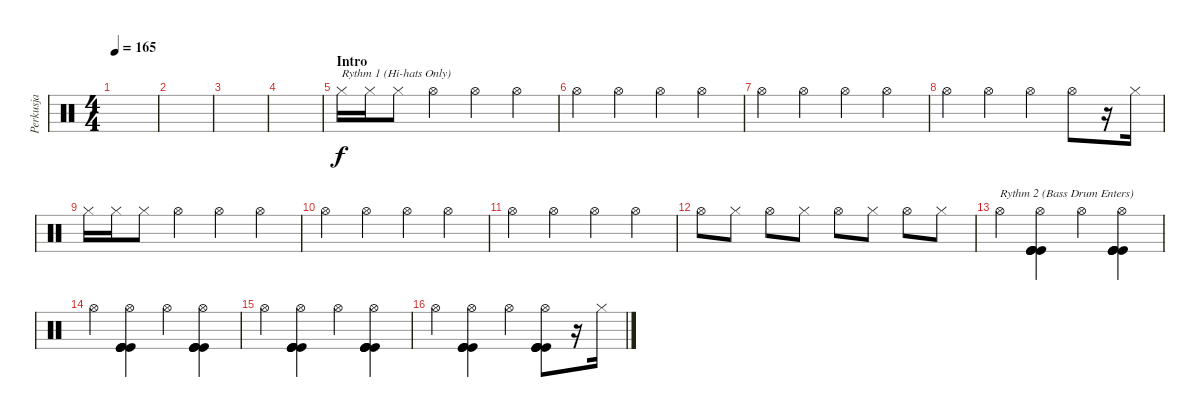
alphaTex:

\track ("Perkusja" "Perkusja") {instrument percussion}
\staff {score}
\articulation defaults
\ts (4 4)
\tempo 165
\clef neutral
\ks c
|
|
|
|
\section ("" "Intro")
"Hi-Hat (closed)".16{txt "Rythm 1 (Hi-hats Only)"} "Hi-Hat (closed)".16 "Hi-Hat (closed)".8 "Hi-Hat (open)".4 "Hi-Hat (open)".4 "Hi-Hat (open)".4 |
"Hi-Hat (open)".4 "Hi-Hat (open)".4 "Hi-Hat (open)".4 "Hi-Hat (open)".4 |
"Hi-Hat (open)".4 "Hi-Hat (open)".4 "Hi-Hat (open)".4 "Hi-Hat (open)".4 |
"Hi-Hat (open)".4 "Hi-Hat (open)".4 "Hi-Hat (open)".4 "Hi-Hat (open)".8 r.16 "Hi-Hat (closed)".16 |
"Hi-Hat (closed)".16 "Hi-Hat (closed)".16 "Hi-Hat (closed)".8 "Hi-Hat (open)".4 "Hi-Hat (open)".4 "Hi-Hat (open)".4 |
"Hi-Hat (open)".4 "Hi-Hat (open)".4 "Hi-Hat (open)".4 "Hi-Hat (open)".4 |
"Hi-Hat (open)".4 "Hi-Hat (open)".4 "Hi-Hat (open)".4 "Hi-Hat (open)".4 |
"Hi-Hat (open)".8 "Hi-Hat (closed)".8 "Hi-Hat (open)".8 "Hi-Hat (closed)".8 "Hi-Hat (open)".8 "Hi-Hat (closed)".8 "Hi-Hat (open)".8 "Hi-Hat (closed)".8 |
"Hi-Hat (open)".4{txt "Rythm 2 (Bass Drum Enters)"} ("Hi-Hat (open)" "Kick (hit)" "Kick (hit)" "Kick (hit)" "Kick (hit)").4 "Hi-Hat (open)".4 ("Hi-Hat (open)" "Kick (hit)" "Kick (hit)" "Kick (hit)" "Kick (hit)").4 |
"Hi-Hat (open)".4 ("Hi-Hat (open)" "Kick (hit)" "Kick (hit)" "Kick (hit)" "Kick (hit)").4 "Hi-Hat (open)".4 ("Hi-Hat (open)" "Kick (hit)" "Kick (hit)" "Kick (hit)" "Kick (hit)").4 |
"Hi-Hat (open)".4 ("Hi-Hat (open)" "Kick (hit)" "Kick (hit)" "Kick (hit)" "Kick (hit)").4 "Hi-Hat (open)".4 ("Hi-Hat (open)" "Kick (hit)" "Kick (hit)" "Kick (hit)" "Kick (hit)").4 |
"Hi-Hat (open)".4 ("Hi-Hat (open)" "Kick (hit)" "Kick (hit)" "Kick (hit)" "Kick (hit)").4 "Hi-Hat (open)".4 ("Hi-Hat (open)" "Kick (hit)" "Kick (hit)" "Kick (hit)" "Kick (hit)").8 r.16 "Hi-Hat (closed)".16
